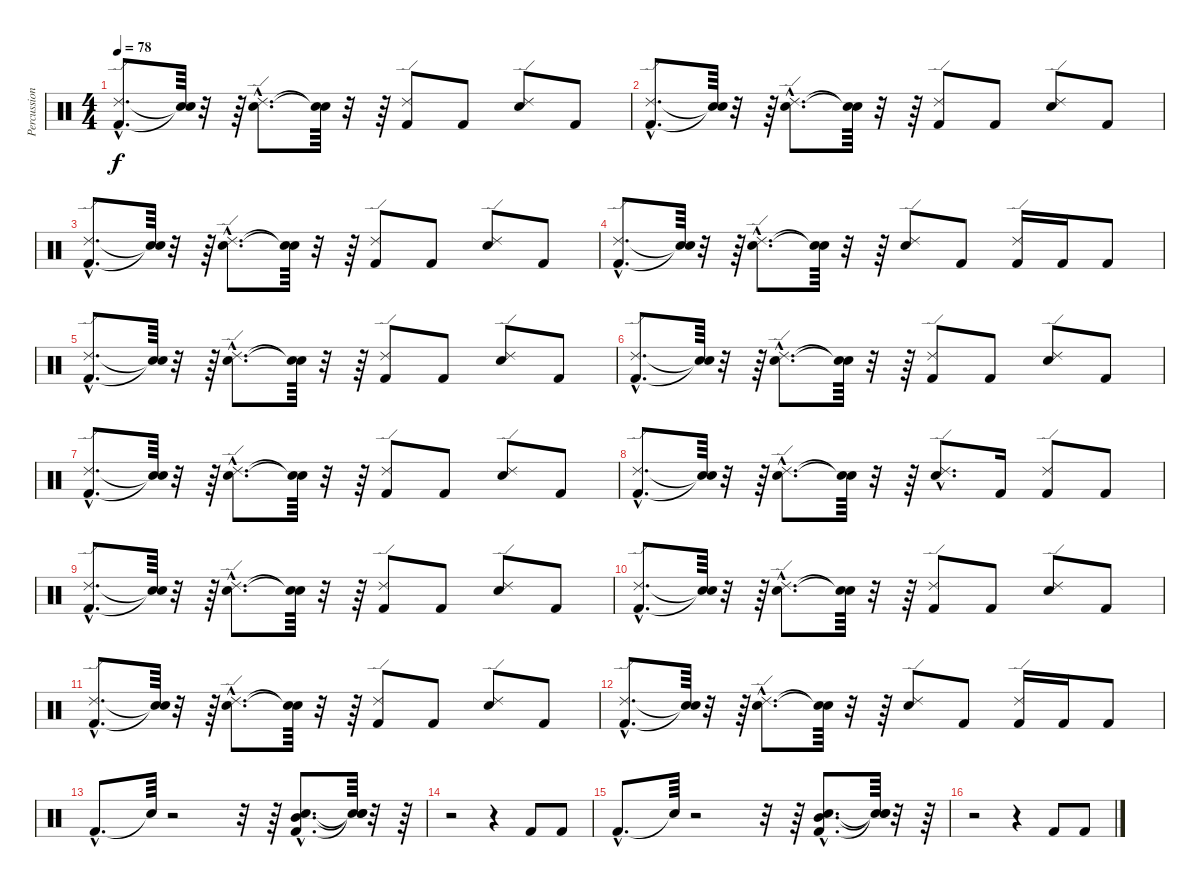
\track ("Percussion" "Percussion") {instrument percussion}
\staff {score}
\articulation defaults
\ts (4 4)
\tempo 78
\clef neutral
\ks c
("Kick (hit) 2"{hac} "Ride (edge) 2"{hac}).8{d dy f} ("Snare (hit)"{t} "Snare (hit)"{t}).64 r.32 r.64 ("Snare (hit) 2"{hac} "Ride (edge) 2"{hac}).8{d} ("Snare (hit)"{t} "Snare (hit)"{t}).64 r.32 r.64 ("Kick (hit) 2" "Ride (edge) 2").8 "Kick (hit) 2".8 ("Snare (hit) 2" "Ride (edge) 2").8 "Kick (hit) 2".8 |
("Kick (hit) 2"{hac} "Ride (edge) 2"{hac}).8{d} ("Snare (hit)"{t} "Snare (hit)"{t}).64 r.32 r.64 ("Snare (hit) 2"{hac} "Ride (edge) 2"{hac}).8{d} ("Snare (hit)"{t} "Snare (hit)"{t}).64 r.32 r.64 ("Kick (hit) 2" "Ride (edge) 2").8 "Kick (hit) 2".8 ("Snare (hit) 2" "Ride (edge) 2").8 "Kick (hit) 2".8 |
("Kick (hit) 2"{hac} "Ride (edge) 2"{hac}).8{d} ("Snare (hit)"{t} "Snare (hit)"{t}).64 r.32 r.64 ("Snare (hit) 2"{hac} "Ride (edge) 2"{hac}).8{d} ("Snare (hit)"{t} "Snare (hit)"{t}).64 r.32 r.64 ("Kick (hit) 2" "Ride (edge) 2").8 "Kick (hit) 2".8 ("Snare (hit) 2" "Ride (edge) 2").8 "Kick (hit) 2".8 |
("Kick (hit) 2"{hac} "Ride (edge) 2"{hac}).8{d} ("Snare (hit)"{t} "Snare (hit)"{t}).64 r.32 r.64 ("Snare (hit) 2"{hac} "Ride (edge) 2"{hac}).8{d} ("Snare (hit)"{t} "Snare (hit)"{t}).64 r.32 r.64 ("Snare (hit) 2" "Ride (edge) 2").8 "Kick (hit) 2".8 ("Kick (hit) 2" "Ride (edge) 2").16 "Kick (hit) 2".16 "Kick (hit) 2".8 |
("Kick (hit) 2"{hac} "Ride (edge) 2"{hac}).8{d} ("Snare (hit)"{t} "Snare (hit)"{t}).64 r.32 r.64 ("Snare (hit) 2"{hac} "Ride (edge) 2"{hac}).8{d} ("Snare (hit)"{t} "Snare (hit)"{t}).64 r.32 r.64 ("Kick (hit) 2" "Ride (edge) 2").8 "Kick (hit) 2".8 ("Snare (hit) 2" "Ride (edge) 2").8 "Kick (hit) 2".8 |
("Kick (hit) 2"{hac} "Ride (edge) 2"{hac}).8{d} ("Snare (hit)"{t} "Snare (hit)"{t}).64 r.32 r.64 ("Snare (hit) 2"{hac} "Ride (edge) 2"{hac}).8{d} ("Snare (hit)"{t} "Snare (hit)"{t}).64 r.32 r.64 ("Kick (hit) 2" "Ride (edge) 2").8 "Kick (hit) 2".8 ("Snare (hit) 2" "Ride (edge) 2").8 "Kick (hit) 2".8 |
("Kick (hit) 2"{hac} "Ride (edge) 2"{hac}).8{d} ("Snare (hit)"{t} "Snare (hit)"{t}).64 r.32 r.64 ("Snare (hit) 2"{hac} "Ride (edge) 2"{hac}).8{d} ("Snare (hit)"{t} "Snare (hit)"{t}).64 r.32 r.64 ("Kick (hit) 2" "Ride (edge) 2").8 "Kick (hit) 2".8 ("Snare (hit) 2" "Ride (edge) 2").8 "Kick (hit) 2".8 |
("Kick (hit) 2"{hac} "Ride (edge) 2"{hac}).8{d} ("Snare (hit)"{t} "Snare (hit)"{t}).64 r.32 r.64 ("Snare (hit) 2"{hac} "Ride (edge) 2"{hac}).8{d} ("Snare (hit)"{t} "Snare (hit)"{t}).64 r.32 r.64 ("Snare (hit) 2"{hac} "Ride (edge) 2"{hac}).8{d} "Kick (hit) 2".16 ("Kick (hit) 2" "Ride (edge) 2").8 "Kick (hit) 2".8 |
("Kick (hit) 2"{hac} "Ride (edge) 2"{hac}).8{d} ("Snare (hit)"{t} "Snare (hit)"{t}).64 r.32 r.64 ("Snare (hit) 2"{hac} "Ride (edge) 2"{hac}).8{d} ("Snare (hit)"{t} "Snare (hit)"{t}).64 r.32 r.64 ("Kick (hit) 2" "Ride (edge) 2").8 "Kick (hit) 2".8 ("Snare (hit) 2" "Ride (edge) 2").8 "Kick (hit) 2".8 |
("Kick (hit) 2"{hac} "Ride (edge) 2"{hac}).8{d} ("Snare (hit)"{t} "Snare (hit)"{t}).64 r.32 r.64 ("Snare (hit) 2"{hac} "Ride (edge) 2"{hac}).8{d} ("Snare (hit)"{t} "Snare (hit)"{t}).64 r.32 r.64 ("Kick (hit) 2" "Ride (edge) 2").8 "Kick (hit) 2".8 ("Snare (hit) 2" "Ride (edge) 2").8 "Kick (hit) 2".8 |
("Kick (hit) 2"{hac} "Ride (edge) 2"{hac}).8{d} ("Snare (hit)"{t} "Snare (hit)"{t}).64 r.32 r.64 ("Snare (hit) 2"{hac} "Ride (edge) 2"{hac}).8{d} ("Snare (hit)"{t} "Snare (hit)"{t}).64 r.32 r.64 ("Kick (hit) 2" "Ride (edge) 2").8 "Kick (hit) 2".8 ("Snare (hit) 2" "Ride (edge) 2").8 "Kick (hit) 2".8 |
("Kick (hit) 2"{hac} "Ride (edge) 2"{hac}).8{d} ("Snare (hit)"{t} "Snare (hit)"{t}).64 r.32 r.64 ("Snare (hit) 2"{hac} "Ride (edge) 2"{hac}).8{d} ("Snare (hit)"{t} "Snare (hit)"{t}).64 r.32 r.64 ("Snare (hit) 2" "Ride (edge) 2").8 "Kick (hit) 2".8 ("Kick (hit) 2" "Ride (edge) 2").16 "Kick (hit) 2".16 "Kick (hit) 2".8 |
"Kick (hit) 2"{hac}.8{d} "Snare (hit)"{t}.64 r.2 r.32 r.64 ("Kick (hit) 2"{hac} "Electric Snare (hit)"{hac} "Mid Tom (hit)"{hac}).8{d} ("Snare (hit)"{t} "Snare (hit)"{t} "Snare (hit)"{t}).64 r.32 r.64 |
r.2 r.4 "Kick (hit) 2".8 "Kick (hit) 2".8 |
"Kick (hit) 2"{hac}.8{d} "Snare (hit)"{t}.64 r.2 r.32 r.64 ("Kick (hit) 2"{hac} "Electric Snare (hit)"{hac} "Mid Tom (hit)"{hac}).8{d} ("Snare (hit)"{t} "Snare (hit)"{t} "Snare (hit)"{t}).64 r.32 r.64 |
r.2 r.4 "Kick (hit) 2".8 "Kick (hit) 2".8
